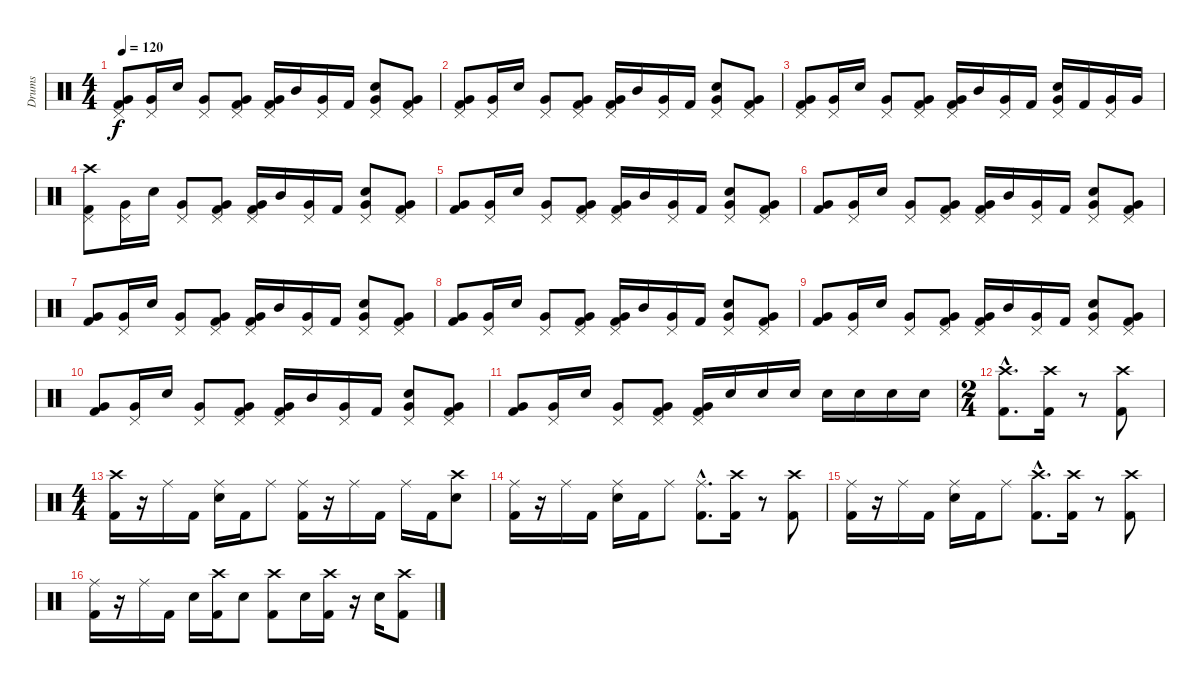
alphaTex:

\track ("Drums" "Drums") {instrument percussion}
\staff {score}
\articulation defaults
\ts (4 4)
\tempo 120
\clef neutral
\ks c
("Very Low Tom (hit)" "Kick (hit) 2" "Pedal Hi-Hat (hit)").8{dy f} ("Very Low Tom (hit)" "Pedal Hi-Hat (hit)").16 "Electric Snare (hit)".16 ("Very Low Tom (hit)" "Pedal Hi-Hat (hit)").8 ("Very Low Tom (hit)" "Kick (hit) 2" "Pedal Hi-Hat (hit)").8 ("Very Low Tom (hit)" "Kick (hit) 2" "Pedal Hi-Hat (hit)").16 "Mid Tom (hit)".16 ("Very Low Tom (hit)" "Pedal Hi-Hat (hit)").16 "Kick (hit) 2".16 ("Electric Snare (hit)" "Very Low Tom (hit)" "Pedal Hi-Hat (hit)").8 ("Very Low Tom (hit)" "Kick (hit) 2" "Pedal Hi-Hat (hit)").8 |
("Very Low Tom (hit)" "Kick (hit) 2" "Pedal Hi-Hat (hit)").8 ("Very Low Tom (hit)" "Pedal Hi-Hat (hit)").16 "Electric Snare (hit)".16 ("Very Low Tom (hit)" "Pedal Hi-Hat (hit)").8 ("Very Low Tom (hit)" "Kick (hit) 2" "Pedal Hi-Hat (hit)").8 ("Very Low Tom (hit)" "Kick (hit) 2" "Pedal Hi-Hat (hit)").16 "Mid Tom (hit)".16 ("Very Low Tom (hit)" "Pedal Hi-Hat (hit)").16 "Kick (hit) 2".16 ("Electric Snare (hit)" "Very Low Tom (hit)" "Pedal Hi-Hat (hit)").8 ("Very Low Tom (hit)" "Kick (hit) 2" "Pedal Hi-Hat (hit)").8 |
("Very Low Tom (hit)" "Kick (hit) 2" "Pedal Hi-Hat (hit)").8 ("Very Low Tom (hit)" "Pedal Hi-Hat (hit)").16 "Electric Snare (hit)".16 ("Very Low Tom (hit)" "Pedal Hi-Hat (hit)").8 ("Very Low Tom (hit)" "Kick (hit) 2" "Pedal Hi-Hat (hit)").8 ("Very Low Tom (hit)" "Kick (hit) 2" "Pedal Hi-Hat (hit)").16 "Mid Tom (hit)".16 ("Very Low Tom (hit)" "Pedal Hi-Hat (hit)").16 "Kick (hit) 2".16 ("Electric Snare (hit)" "Very Low Tom (hit)" "Pedal Hi-Hat (hit)").16 "Kick (hit) 2".16 ("Very Low Tom (hit)" "Pedal Hi-Hat (hit)").16 "Very Low Tom (hit)".16 |
("Crash high (hit)" "Kick (hit) 2" "Pedal Hi-Hat (hit)").8 ("Very Low Tom (hit)" "Pedal Hi-Hat (hit)").16 "Electric Snare (hit)".16 ("Very Low Tom (hit)" "Pedal Hi-Hat (hit)").8 ("Very Low Tom (hit)" "Kick (hit) 2" "Pedal Hi-Hat (hit)").8 ("Very Low Tom (hit)" "Kick (hit) 2" "Pedal Hi-Hat (hit)").16 "Mid Tom (hit)".16 ("Very Low Tom (hit)" "Pedal Hi-Hat (hit)").16 "Kick (hit) 2".16 ("Electric Snare (hit)" "Very Low Tom (hit)" "Pedal Hi-Hat (hit)").8 ("Very Low Tom (hit)" "Kick (hit) 2" "Pedal Hi-Hat (hit)").8 |
("Very Low Tom (hit)" "Kick (hit) 2").8 ("Very Low Tom (hit)" "Pedal Hi-Hat (hit)").16 "Electric Snare (hit)".16 ("Very Low Tom (hit)" "Pedal Hi-Hat (hit)").8 ("Very Low Tom (hit)" "Kick (hit) 2" "Pedal Hi-Hat (hit)").8 ("Very Low Tom (hit)" "Kick (hit) 2" "Pedal Hi-Hat (hit)").16 "Mid Tom (hit)".16 ("Very Low Tom (hit)" "Pedal Hi-Hat (hit)").16 "Kick (hit) 2".16 ("Electric Snare (hit)" "Very Low Tom (hit)" "Pedal Hi-Hat (hit)").8 ("Very Low Tom (hit)" "Kick (hit) 2" "Pedal Hi-Hat (hit)").8 |
("Very Low Tom (hit)" "Kick (hit) 2").8 ("Very Low Tom (hit)" "Pedal Hi-Hat (hit)").16 "Electric Snare (hit)".16 ("Very Low Tom (hit)" "Pedal Hi-Hat (hit)").8 ("Very Low Tom (hit)" "Kick (hit) 2" "Pedal Hi-Hat (hit)").8 ("Very Low Tom (hit)" "Kick (hit) 2" "Pedal Hi-Hat (hit)").16 "Mid Tom (hit)".16 ("Very Low Tom (hit)" "Pedal Hi-Hat (hit)").16 "Kick (hit) 2".16 ("Electric Snare (hit)" "Very Low Tom (hit)" "Pedal Hi-Hat (hit)").8 ("Very Low Tom (hit)" "Kick (hit) 2" "Pedal Hi-Hat (hit)").8 |
("Very Low Tom (hit)" "Kick (hit) 2").8 ("Very Low Tom (hit)" "Pedal Hi-Hat (hit)").16 "Electric Snare (hit)".16 ("Very Low Tom (hit)" "Pedal Hi-Hat (hit)").8 ("Very Low Tom (hit)" "Kick (hit) 2" "Pedal Hi-Hat (hit)").8 ("Very Low Tom (hit)" "Kick (hit) 2" "Pedal Hi-Hat (hit)").16 "Mid Tom (hit)".16 ("Very Low Tom (hit)" "Pedal Hi-Hat (hit)").16 "Kick (hit) 2".16 ("Electric Snare (hit)" "Very Low Tom (hit)" "Pedal Hi-Hat (hit)").8 ("Very Low Tom (hit)" "Kick (hit) 2" "Pedal Hi-Hat (hit)").8 |
("Very Low Tom (hit)" "Kick (hit) 2").8 ("Very Low Tom (hit)" "Pedal Hi-Hat (hit)").16 "Electric Snare (hit)".16 ("Very Low Tom (hit)" "Pedal Hi-Hat (hit)").8 ("Very Low Tom (hit)" "Kick (hit) 2" "Pedal Hi-Hat (hit)").8 ("Very Low Tom (hit)" "Kick (hit) 2" "Pedal Hi-Hat (hit)").16 "Mid Tom (hit)".16 ("Very Low Tom (hit)" "Pedal Hi-Hat (hit)").16 "Kick (hit) 2".16 ("Electric Snare (hit)" "Very Low Tom (hit)" "Pedal Hi-Hat (hit)").8 ("Very Low Tom (hit)" "Kick (hit) 2" "Pedal Hi-Hat (hit)").8 |
("Very Low Tom (hit)" "Kick (hit) 2").8 ("Very Low Tom (hit)" "Pedal Hi-Hat (hit)").16 "Electric Snare (hit)".16 ("Very Low Tom (hit)" "Pedal Hi-Hat (hit)").8 ("Very Low Tom (hit)" "Kick (hit) 2" "Pedal Hi-Hat (hit)").8 ("Very Low Tom (hit)" "Kick (hit) 2" "Pedal Hi-Hat (hit)").16 "Mid Tom (hit)".16 ("Very Low Tom (hit)" "Pedal Hi-Hat (hit)").16 "Kick (hit) 2".16 ("Electric Snare (hit)" "Very Low Tom (hit)" "Pedal Hi-Hat (hit)").8 ("Very Low Tom (hit)" "Kick (hit) 2" "Pedal Hi-Hat (hit)").8 |
("Very Low Tom (hit)" "Kick (hit) 2").8 ("Very Low Tom (hit)" "Pedal Hi-Hat (hit)").16 "Electric Snare (hit)".16 ("Very Low Tom (hit)" "Pedal Hi-Hat (hit)").8 ("Very Low Tom (hit)" "Kick (hit) 2" "Pedal Hi-Hat (hit)").8 ("Very Low Tom (hit)" "Kick (hit) 2" "Pedal Hi-Hat (hit)").16 "Mid Tom (hit)".16 ("Very Low Tom (hit)" "Pedal Hi-Hat (hit)").16 "Kick (hit) 2".16 ("Electric Snare (hit)" "Very Low Tom (hit)" "Pedal Hi-Hat (hit)").8 ("Very Low Tom (hit)" "Kick (hit) 2" "Pedal Hi-Hat (hit)").8 |
("Very Low Tom (hit)" "Kick (hit) 2").8 ("Very Low Tom (hit)" "Pedal Hi-Hat (hit)").16 "Electric Snare (hit)".16 ("Very Low Tom (hit)" "Pedal Hi-Hat (hit)").8 ("Very Low Tom (hit)" "Kick (hit) 2" "Pedal Hi-Hat (hit)").8 ("Very Low Tom (hit)" "Kick (hit) 2" "Pedal Hi-Hat (hit)").16 "Electric Snare (hit)".16 "Electric Snare (hit)".16 "Electric Snare (hit)".16 "Electric Snare (hit)".16 "Electric Snare (hit)".16 "Electric Snare (hit)".16 "Electric Snare (hit)".16 |
\ts (2 4)
("Crash high (hit)"{hac} "Kick (hit) 2"{hac}).8{d} ("Crash high (hit)" "Kick (hit) 2").16 r.8 ("Crash high (hit)" "Kick (hit) 2").8 |
\ts (4 4)
("Crash high (hit)" "Kick (hit) 2").16 r.16 "Ride (middle)".16 "Kick (hit) 2".16 ("Ride (middle)" "Electric Snare (hit)").16 "Kick (hit) 2".16 "Ride (middle)".8 ("Ride (middle)" "Kick (hit) 2").16 r.16 "Ride (middle)".16 "Kick (hit) 2".16 "Ride (middle)".16 "Kick (hit) 2".16 ("Crash high (hit)" "Electric Snare (hit)").8 |
("Ride (middle)" "Kick (hit) 2").16 r.16 "Ride (middle)".16 "Kick (hit) 2".16 ("Ride (middle)" "Electric Snare (hit)").16 "Kick (hit) 2".16 "Ride (middle)".8 ("Ride (middle)"{hac} "Kick (hit) 2"{hac}).8{d} ("Crash high (hit)" "Kick (hit) 2").16 r.8 ("Crash high (hit)" "Kick (hit) 2").8 |
("Ride (middle)" "Kick (hit) 2").16 r.16 "Ride (middle)".16 "Kick (hit) 2".16 ("Ride (middle)" "Electric Snare (hit)").16 "Kick (hit) 2".16 "Ride (middle)".8 ("Crash high (hit)"{hac} "Kick (hit) 2"{hac}).8{d} ("Crash high (hit)" "Kick (hit) 2").16 r.8 ("Crash high (hit)" "Kick (hit) 2").8 |
("Ride (middle)" "Kick (hit) 2").16 r.16 "Ride (middle)".16 "Kick (hit) 2".16 "Electric Snare (hit)".16 ("Crash high (hit)" "Kick (hit) 2").16 "Electric Snare (hit)".8 ("Crash high (hit)" "Kick (hit) 2").8 "Electric Snare (hit)".16 ("Crash high (hit)" "Kick (hit) 2").16 r.16 "Electric Snare (hit)".16 ("Crash high (hit)" "Kick (hit) 2").8
